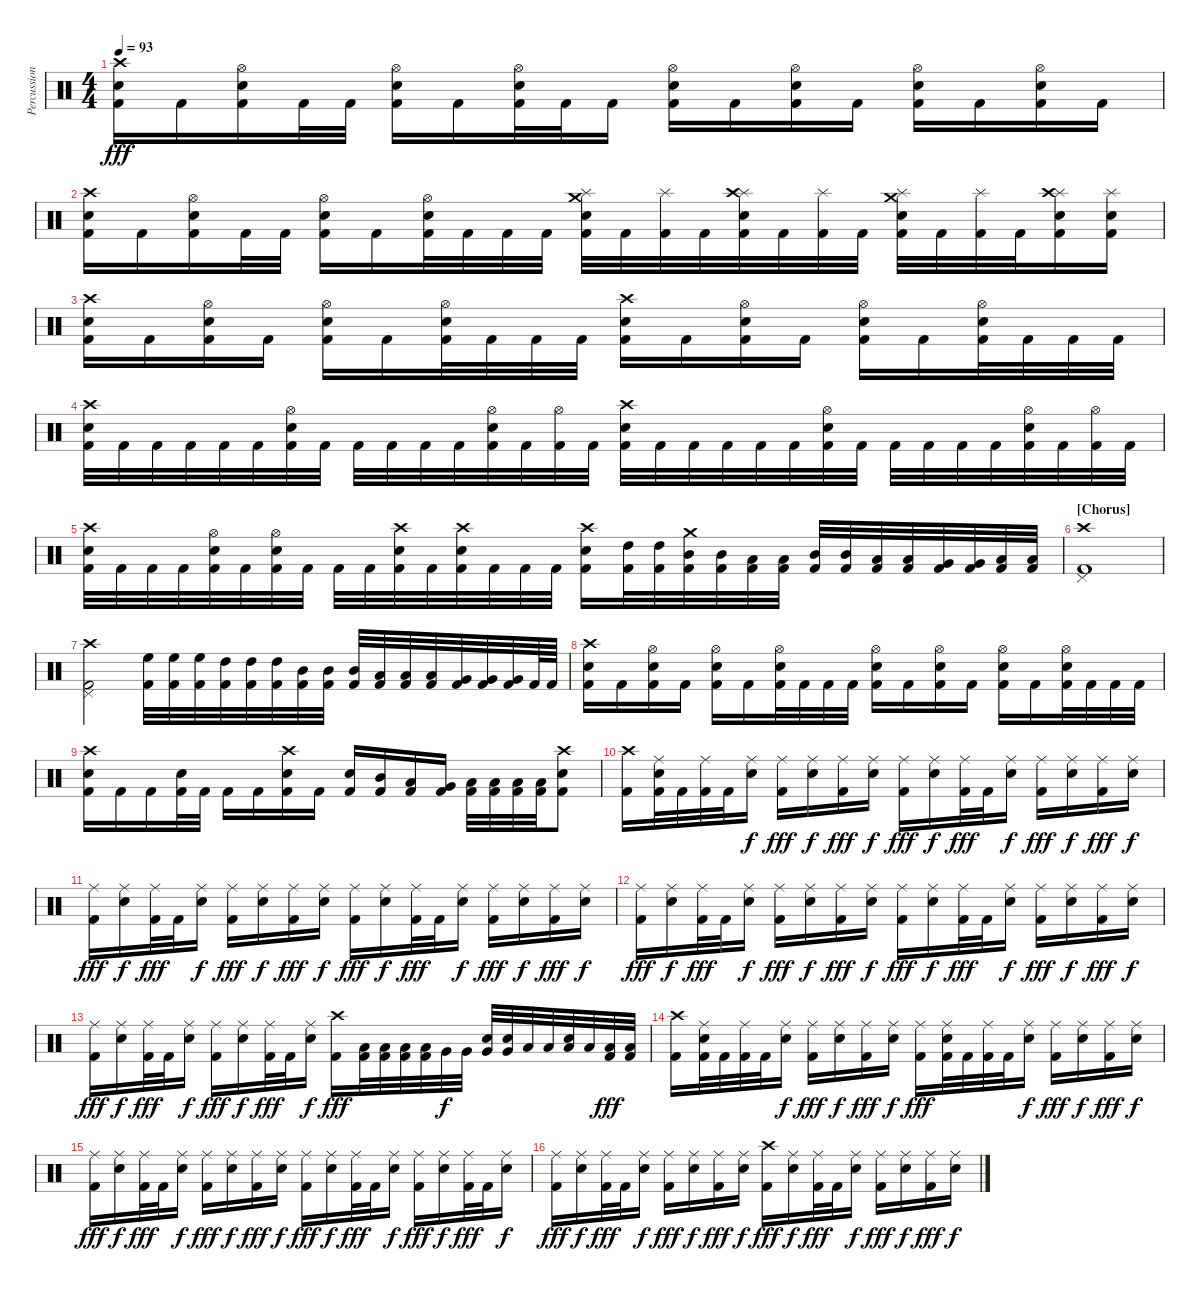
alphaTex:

\track ("Percussion" "Percussion") {instrument percussion}
\staff {score}
\articulation defaults
\ts (4 4)
\tempo 93
\clef neutral
\ks c
("Crash high (hit)" "Snare (hit) 2" "Kick (hit) 2").16{dy fff} "Kick (hit) 2".16 ("Hi-Hat (open)" "Snare (hit) 2" "Kick (hit) 2").16 "Kick (hit) 2".32 "Kick (hit) 2".32 ("Hi-Hat (open)" "Snare (hit) 2" "Kick (hit) 2").16 "Kick (hit) 2".16 ("Hi-Hat (open)" "Snare (hit) 2" "Kick (hit) 2").32 "Kick (hit) 2".32 "Kick (hit) 2".16 ("Hi-Hat (open)" "Snare (hit) 2" "Kick (hit) 2").16 "Kick (hit) 2".16 ("Hi-Hat (open)" "Snare (hit) 2" "Kick (hit) 2").16 "Kick (hit) 2".16 ("Hi-Hat (open)" "Snare (hit) 2" "Kick (hit) 2").16 "Kick (hit) 2".16 ("Hi-Hat (open)" "Snare (hit) 2" "Kick (hit) 2").16 "Kick (hit) 2".16 |
("Crash high (hit)" "Snare (hit) 2" "Kick (hit) 2").16 "Kick (hit) 2".16 ("Hi-Hat (open)" "Snare (hit) 2" "Kick (hit) 2").16 "Kick (hit) 2".32 "Kick (hit) 2".32 ("Hi-Hat (open)" "Snare (hit) 2" "Kick (hit) 2").16 "Kick (hit) 2".16 ("Hi-Hat (open)" "Snare (hit) 2" "Kick (hit) 2").32 "Kick (hit) 2".32 "Kick (hit) 2".32 "Kick (hit) 2".32 ("Splash (hit)" "Crash medium (hit)" "Snare (hit) 2" "Kick (hit) 2").32 "Kick (hit) 2".32 ("Splash (hit)" "Kick (hit) 2").32 "Kick (hit) 2".32 ("Splash (hit)" "Crash high (hit)" "Snare (hit) 2" "Kick (hit) 2").32 "Kick (hit) 2".32 ("Splash (hit)" "Kick (hit) 2").32 "Kick (hit) 2".32 ("Splash (hit)" "Crash medium (hit)" "Snare (hit) 2" "Kick (hit) 2").32 "Kick (hit) 2".32 ("Splash (hit)" "Kick (hit) 2").32 "Kick (hit) 2".32 ("Splash (hit)" "Crash high (hit)" "Snare (hit) 2" "Kick (hit) 2").16 ("Splash (hit)" "Snare (hit) 2" "Kick (hit) 2").16 |
("Crash high (hit)" "Snare (hit) 2" "Kick (hit) 2").16 "Kick (hit) 2".16 ("Hi-Hat (open)" "Snare (hit) 2" "Kick (hit) 2").16 "Kick (hit) 2".16 ("Hi-Hat (open)" "Snare (hit) 2" "Kick (hit) 2").16 "Kick (hit) 2".16 ("Hi-Hat (open)" "Snare (hit) 2" "Kick (hit) 2").32 "Kick (hit) 2".32 "Kick (hit) 2".32 "Kick (hit) 2".32 ("Crash high (hit)" "Snare (hit) 2" "Kick (hit) 2").16 "Kick (hit) 2".16 ("Hi-Hat (open)" "Snare (hit) 2" "Kick (hit) 2").16 "Kick (hit) 2".16 ("Hi-Hat (open)" "Snare (hit) 2" "Kick (hit) 2").16 "Kick (hit) 2".16 ("Hi-Hat (open)" "Snare (hit) 2" "Kick (hit) 2").32 "Kick (hit) 2".32 "Kick (hit) 2".32 "Kick (hit) 2".32 |
("Crash high (hit)" "Snare (hit) 2" "Kick (hit) 2").32 "Kick (hit) 2".32 "Kick (hit) 2".32 "Kick (hit) 2".32 "Kick (hit) 2".32 "Kick (hit) 2".32 ("Hi-Hat (open)" "Snare (hit) 2" "Kick (hit) 2").32 "Kick (hit) 2".32 "Kick (hit) 2".32 "Kick (hit) 2".32 "Kick (hit) 2".32 "Kick (hit) 2".32 ("Hi-Hat (open)" "Snare (hit) 2" "Kick (hit) 2").32 "Kick (hit) 2".32 ("Hi-Hat (open)" "Kick (hit) 2").32 "Kick (hit) 2".32 ("Crash high (hit)" "Snare (hit) 2" "Kick (hit) 2").32 "Kick (hit) 2".32 "Kick (hit) 2".32 "Kick (hit) 2".32 "Kick (hit) 2".32 "Kick (hit) 2".32 ("Hi-Hat (open)" "Snare (hit) 2" "Kick (hit) 2").32 "Kick (hit) 2".32 "Kick (hit) 2".32 "Kick (hit) 2".32 "Kick (hit) 2".32 "Kick (hit) 2".32 ("Hi-Hat (open)" "Snare (hit) 2" "Kick (hit) 2").32 "Kick (hit) 2".32 ("Hi-Hat (open)" "Kick (hit) 2").32 "Kick (hit) 2".32 |
("Crash high (hit)" "Snare (hit) 2" "Kick (hit) 2").32 "Kick (hit) 2".32 "Kick (hit) 2".32 "Kick (hit) 2".32 ("Hi-Hat (open)" "Snare (hit) 2" "Kick (hit) 2").32 "Kick (hit) 2".32 ("Hi-Hat (open)" "Snare (hit) 2" "Kick (hit) 2").32 "Kick (hit) 2".32 "Kick (hit) 2".32 "Kick (hit) 2".32 ("Crash high (hit)" "Snare (hit) 2" "Kick (hit) 2").32 "Kick (hit) 2".32 ("Crash high (hit)" "Snare (hit) 2" "Kick (hit) 2").32 "Kick (hit) 2".32 "Kick (hit) 2".32 "Kick (hit) 2".32 ("Crash high (hit)" "Snare (hit) 2" "Kick (hit) 2").16 ("High Tom (hit)" "Kick (hit) 2").32 ("High Tom (hit)" "Kick (hit) 2").32 ("Crash medium (hit)" "Mid Tom (hit)" "Kick (hit) 2").32 ("Mid Tom (hit)" "Kick (hit) 2").32 ("Low Tom (hit)" "Kick (hit) 2").32 ("Low Tom (hit)" "Kick (hit) 2").32 ("Mid Tom (hit)" "Kick (hit) 2").32 ("Mid Tom (hit)" "Kick (hit) 2").32 ("Low Tom (hit)" "Kick (hit) 2").32 ("Low Tom (hit)" "Kick (hit) 2").32 ("Very Low Tom (hit)" "Kick (hit) 2").32 ("Very Low Tom (hit)" "Kick (hit) 2").32 ("Low Floor Tom (hit)" "Kick (hit) 2").32 ("Low Floor Tom (hit)" "Kick (hit) 2").32 |
\section ("" "[Chorus]")
("Crash high (hit)" "Pedal Hi-Hat (hit)" "Kick (hit) 2").1 |
("Crash high (hit)" "Pedal Hi-Hat (hit)" "Kick (hit) 2").2 ("High Floor Tom (hit)" "Kick (hit) 2").32 ("High Floor Tom (hit)" "Kick (hit) 2").32 ("High Floor Tom (hit)" "Kick (hit) 2").32 ("High Tom (hit)" "Kick (hit) 2").32 ("High Tom (hit)" "Kick (hit) 2").32 ("High Tom (hit)" "Kick (hit) 2").32 ("Mid Tom (hit)" "Kick (hit) 2").32 ("Mid Tom (hit)" "Kick (hit) 2").32 ("Mid Tom (hit)" "Kick (hit) 2").32 ("Low Tom (hit)" "Kick (hit) 2").32 ("Low Tom (hit)" "Kick (hit) 2").32 ("Low Tom (hit)" "Kick (hit) 2").32 ("Very Low Tom (hit)" "Kick (hit) 2").32 ("Very Low Tom (hit)" "Kick (hit) 2").32 ("Very Low Tom (hit)" "Kick (hit) 2").32 "Kick (hit) 2".64 "Kick (hit) 2".64 |
("Crash high (hit)" "Snare (hit) 2" "Kick (hit) 2").16 "Kick (hit) 2".16 ("Hi-Hat (open)" "Snare (hit) 2" "Kick (hit) 2").16 "Kick (hit) 2".16 ("Hi-Hat (open)" "Snare (hit) 2" "Kick (hit) 2").16 "Kick (hit) 2".16 ("Hi-Hat (open)" "Snare (hit) 2" "Kick (hit) 2").32 "Kick (hit) 2".32 "Kick (hit) 2".32 "Kick (hit) 2".32 ("Hi-Hat (open)" "Snare (hit) 2" "Kick (hit) 2").16 "Kick (hit) 2".16 ("Hi-Hat (open)" "Snare (hit) 2" "Kick (hit) 2").16 "Kick (hit) 2".16 ("Hi-Hat (open)" "Snare (hit) 2" "Kick (hit) 2").16 "Kick (hit) 2".16 ("Hi-Hat (open)" "Snare (hit) 2" "Kick (hit) 2").32 "Kick (hit) 2".32 "Kick (hit) 2".32 "Kick (hit) 2".32 |
("Crash high (hit)" "Snare (hit) 2" "Kick (hit) 2").16 "Kick (hit) 2".16 "Kick (hit) 2".16 ("Snare (hit) 2" "Kick (hit) 2").32 "Kick (hit) 2".32 "Kick (hit) 2".16 "Kick (hit) 2".16 ("Crash high (hit)" "Snare (hit) 2" "Kick (hit) 2").16 "Kick (hit) 2".16 ("Snare (hit) 2" "Kick (hit) 2").16 ("Mid Tom (hit)" "Kick (hit) 2").16 ("Low Tom (hit)" "Kick (hit) 2").16 ("Very Low Tom (hit)" "Kick (hit) 2").16 ("Low Floor Tom (hit)" "Kick (hit) 2").32 ("Low Floor Tom (hit)" "Kick (hit) 2").32 ("Low Floor Tom (hit)" "Kick (hit) 2").32 ("Low Floor Tom (hit)" "Kick (hit) 2").32 ("Crash high (hit)" "Snare (hit) 2" "Kick (hit) 2").8 |
("Crash high (hit)" "Kick (hit) 2").16 ("Ride (middle)" "Snare (hit) 2" "Kick (hit) 2").32 "Kick (hit) 2".32 ("Ride (middle)" "Kick (hit) 2").32 "Kick (hit) 2".32 ("Ride (middle)" "Snare (hit) 2").16{dy f} ("Ride (middle)" "Kick (hit) 2").16{dy fff} ("Ride (middle)" "Snare (hit) 2").16{dy f} ("Ride (middle)" "Kick (hit) 2").16{dy fff} ("Ride (middle)" "Snare (hit) 2").16{dy f} ("Ride (middle)" "Kick (hit) 2").16{dy fff} ("Ride (middle)" "Snare (hit) 2").16{dy f} ("Ride (middle)" "Kick (hit) 2").32{dy fff} "Kick (hit) 2".32 ("Ride (middle)" "Snare (hit) 2").16{dy f} ("Ride (middle)" "Kick (hit) 2").16{dy fff} ("Ride (middle)" "Snare (hit) 2").16{dy f} ("Ride (middle)" "Kick (hit) 2").16{dy fff} ("Ride (middle)" "Snare (hit) 2").16{dy f} |
("Ride (middle)" "Kick (hit) 2").16{dy fff} ("Ride (middle)" "Snare (hit) 2").16{dy f} ("Ride (middle)" "Kick (hit) 2").32{dy fff} "Kick (hit) 2".32 ("Ride (middle)" "Snare (hit) 2").16{dy f} ("Ride (middle)" "Kick (hit) 2").16{dy fff} ("Ride (middle)" "Snare (hit) 2").16{dy f} ("Ride (middle)" "Kick (hit) 2").16{dy fff} ("Ride (middle)" "Snare (hit) 2").16{dy f} ("Ride (middle)" "Kick (hit) 2").16{dy fff} ("Ride (middle)" "Snare (hit) 2").16{dy f} ("Ride (middle)" "Kick (hit) 2").32{dy fff} "Kick (hit) 2".32 ("Ride (middle)" "Snare (hit) 2").16{dy f} ("Ride (middle)" "Kick (hit) 2").16{dy fff} ("Ride (middle)" "Snare (hit) 2").16{dy f} ("Ride (middle)" "Kick (hit) 2").16{dy fff} ("Ride (middle)" "Snare (hit) 2").16{dy f} |
("Ride (middle)" "Kick (hit) 2").16{dy fff} ("Ride (middle)" "Snare (hit) 2").16{dy f} ("Ride (middle)" "Kick (hit) 2").32{dy fff} "Kick (hit) 2".32 ("Ride (middle)" "Snare (hit) 2").16{dy f} ("Ride (middle)" "Kick (hit) 2").16{dy fff} ("Ride (middle)" "Snare (hit) 2").16{dy f} ("Ride (middle)" "Kick (hit) 2").16{dy fff} ("Ride (middle)" "Snare (hit) 2").16{dy f} ("Ride (middle)" "Kick (hit) 2").16{dy fff} ("Ride (middle)" "Snare (hit) 2").16{dy f} ("Ride (middle)" "Kick (hit) 2").32{dy fff} "Kick (hit) 2".32 ("Ride (middle)" "Snare (hit) 2").16{dy f} ("Ride (middle)" "Kick (hit) 2").16{dy fff} ("Ride (middle)" "Snare (hit) 2").16{dy f} ("Ride (middle)" "Kick (hit) 2").16{dy fff} ("Ride (middle)" "Snare (hit) 2").16{dy f} |
("Ride (middle)" "Kick (hit) 2").16{dy fff} ("Ride (middle)" "Snare (hit) 2").16{dy f} ("Ride (middle)" "Kick (hit) 2").32{dy fff} "Kick (hit) 2".32 ("Ride (middle)" "Snare (hit) 2").16{dy f} ("Ride (middle)" "Kick (hit) 2").16{dy fff} ("Ride (middle)" "Snare (hit) 2").16{dy f} ("Ride (middle)" "Kick (hit) 2").32{dy fff} "Kick (hit) 2".32 ("Ride (middle)" "Snare (hit) 2").16{dy f} ("Crash high (hit)" "Kick (hit) 2").16{dy fff} ("Low Tom (hit)" "Kick (hit) 2").32 ("Low Tom (hit)" "Kick (hit) 2").32 ("Low Tom (hit)" "Kick (hit) 2").32 ("Low Tom (hit)" "Kick (hit) 2").32 "Very Low Tom (hit)".32{dy f} "Very Low Tom (hit)".32 ("Snare (hit) 2" "Very Low Tom (hit)").32 ("Snare (hit) 2" "Very Low Tom (hit)").32 "Low Floor Tom (hit)".32 "Low Floor Tom (hit)".32 ("Snare (hit) 2" "Low Floor Tom (hit)").32 "Low Floor Tom (hit)".32 ("Low Floor Tom (hit)" "Kick (hit) 2").32{dy fff} ("Low Floor Tom (hit)" "Kick (hit) 2").32 |
("Crash high (hit)" "Kick (hit) 2").16 ("Ride (middle)" "Snare (hit) 2" "Kick (hit) 2").32 "Kick (hit) 2".32 ("Ride (middle)" "Kick (hit) 2").32 "Kick (hit) 2".32 ("Ride (middle)" "Snare (hit) 2").16{dy f} ("Ride (middle)" "Kick (hit) 2").16{dy fff} ("Ride (middle)" "Snare (hit) 2").16{dy f} ("Ride (middle)" "Kick (hit) 2").16{dy fff} ("Ride (middle)" "Snare (hit) 2").16{dy f} ("Ride (middle)" "Kick (hit) 2").16{dy fff} ("Ride (middle)" "Snare (hit) 2" "Kick (hit) 2").32 "Kick (hit) 2".32 ("Ride (middle)" "Kick (hit) 2").32 "Kick (hit) 2".32 ("Ride (middle)" "Snare (hit) 2").16{dy f} ("Ride (middle)" "Kick (hit) 2").16{dy fff} ("Ride (middle)" "Snare (hit) 2").16{dy f} ("Ride (middle)" "Kick (hit) 2").16{dy fff} ("Ride (middle)" "Snare (hit) 2").16{dy f} |
("Ride (middle)" "Kick (hit) 2").16{dy fff} ("Ride (middle)" "Snare (hit) 2").16{dy f} ("Ride (middle)" "Kick (hit) 2").32{dy fff} "Kick (hit) 2".32 ("Ride (middle)" "Snare (hit) 2").16{dy f} ("Ride (middle)" "Kick (hit) 2").16{dy fff} ("Ride (middle)" "Snare (hit) 2").16{dy f} ("Ride (middle)" "Kick (hit) 2").16{dy fff} ("Ride (middle)" "Snare (hit) 2").16{dy f} ("Ride (middle)" "Kick (hit) 2").16{dy fff} ("Ride (middle)" "Snare (hit) 2").16{dy f} ("Ride (middle)" "Kick (hit) 2").32{dy fff} "Kick (hit) 2".32 ("Ride (middle)" "Snare (hit) 2").16{dy f} ("Ride (middle)" "Kick (hit) 2").16{dy fff} ("Ride (middle)" "Snare (hit) 2").16{dy f} ("Ride (middle)" "Kick (hit) 2").32{dy fff} "Kick (hit) 2".32 ("Ride (middle)" "Snare (hit) 2").16{dy f} |
("Ride (middle)" "Kick (hit) 2").16{dy fff} ("Ride (middle)" "Snare (hit) 2").16{dy f} ("Ride (middle)" "Kick (hit) 2").32{dy fff} "Kick (hit) 2".32 ("Ride (middle)" "Snare (hit) 2").16{dy f} ("Ride (middle)" "Kick (hit) 2").16{dy fff} ("Ride (middle)" "Snare (hit) 2").16{dy f} ("Ride (middle)" "Kick (hit) 2").16{dy fff} ("Ride (middle)" "Snare (hit) 2").16{dy f} ("Crash high (hit)" "Kick (hit) 2").16{dy fff} ("Ride (middle)" "Snare (hit) 2").16{dy f} ("Ride (middle)" "Kick (hit) 2").32{dy fff} "Kick (hit) 2".32 ("Ride (middle)" "Snare (hit) 2").16{dy f} ("Ride (middle)" "Kick (hit) 2").16{dy fff} ("Ride (middle)" "Snare (hit) 2").16{dy f} ("Ride (middle)" "Kick (hit) 2").16{dy fff} ("Ride (middle)" "Snare (hit) 2").16{dy f}
